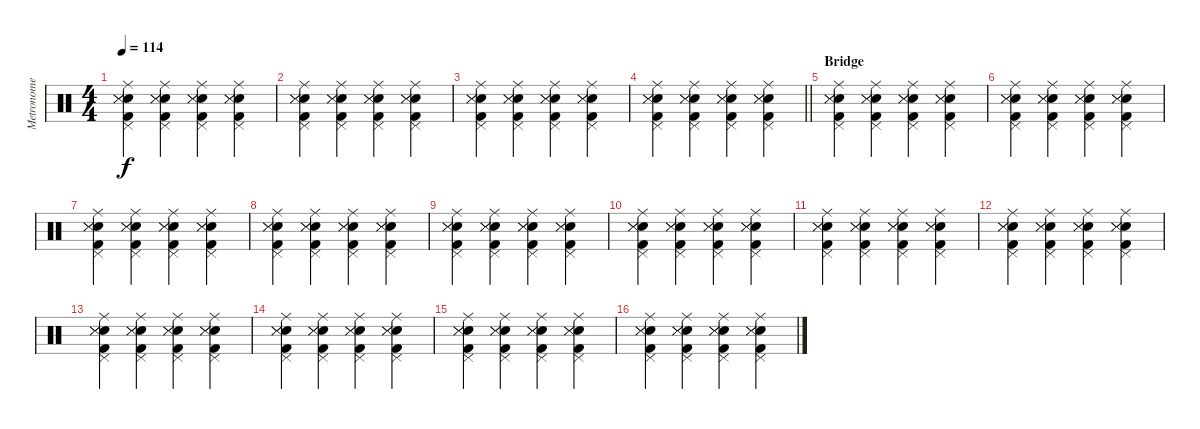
\track ("Metronome" "Metronome") {mute instrument percussion}
\staff {score}
\articulation defaults
\ts (4 4)
\tempo 114
\clef neutral
\ks c
("Ride (middle)" "Pedal Hi-Hat (hit)" "Electric Snare (hit)" "Snare (side stick) 3" "Metronome (hit)" "Kick (hit) 2").4{dy f} ("Ride (middle)" "Pedal Hi-Hat (hit)" "Electric Snare (hit)" "Snare (side stick) 3" "Metronome (hit)" "Kick (hit) 2").4 ("Ride (middle)" "Pedal Hi-Hat (hit)" "Electric Snare (hit)" "Snare (side stick) 3" "Metronome (hit)" "Kick (hit) 2").4 ("Ride (middle)" "Pedal Hi-Hat (hit)" "Electric Snare (hit)" "Snare (side stick) 3" "Metronome (hit)" "Kick (hit) 2").4 |
("Ride (middle)" "Pedal Hi-Hat (hit)" "Electric Snare (hit)" "Snare (side stick) 3" "Metronome (hit)" "Kick (hit) 2").4 ("Ride (middle)" "Pedal Hi-Hat (hit)" "Electric Snare (hit)" "Snare (side stick) 3" "Metronome (hit)" "Kick (hit) 2").4 ("Ride (middle)" "Pedal Hi-Hat (hit)" "Electric Snare (hit)" "Snare (side stick) 3" "Metronome (hit)" "Kick (hit) 2").4 ("Ride (middle)" "Pedal Hi-Hat (hit)" "Electric Snare (hit)" "Snare (side stick) 3" "Metronome (hit)" "Kick (hit) 2").4 |
("Ride (middle)" "Pedal Hi-Hat (hit)" "Electric Snare (hit)" "Snare (side stick) 3" "Metronome (hit)" "Kick (hit) 2").4 ("Ride (middle)" "Pedal Hi-Hat (hit)" "Electric Snare (hit)" "Snare (side stick) 3" "Metronome (hit)" "Kick (hit) 2").4 ("Ride (middle)" "Pedal Hi-Hat (hit)" "Electric Snare (hit)" "Snare (side stick) 3" "Metronome (hit)" "Kick (hit) 2").4 ("Ride (middle)" "Pedal Hi-Hat (hit)" "Electric Snare (hit)" "Snare (side stick) 3" "Metronome (hit)" "Kick (hit) 2").4 |
\barLineRight lightlight
("Ride (middle)" "Pedal Hi-Hat (hit)" "Electric Snare (hit)" "Snare (side stick) 3" "Metronome (hit)" "Kick (hit) 2").4 ("Ride (middle)" "Pedal Hi-Hat (hit)" "Electric Snare (hit)" "Snare (side stick) 3" "Metronome (hit)" "Kick (hit) 2").4 ("Ride (middle)" "Pedal Hi-Hat (hit)" "Electric Snare (hit)" "Snare (side stick) 3" "Metronome (hit)" "Kick (hit) 2").4 ("Ride (middle)" "Pedal Hi-Hat (hit)" "Electric Snare (hit)" "Snare (side stick) 3" "Metronome (hit)" "Kick (hit) 2").4 |
\section ("" "Bridge")
("Ride (middle)" "Pedal Hi-Hat (hit)" "Electric Snare (hit)" "Snare (side stick) 3" "Metronome (hit)" "Kick (hit) 2").4 ("Ride (middle)" "Pedal Hi-Hat (hit)" "Electric Snare (hit)" "Snare (side stick) 3" "Metronome (hit)" "Kick (hit) 2").4 ("Ride (middle)" "Pedal Hi-Hat (hit)" "Electric Snare (hit)" "Snare (side stick) 3" "Metronome (hit)" "Kick (hit) 2").4 ("Ride (middle)" "Pedal Hi-Hat (hit)" "Electric Snare (hit)" "Snare (side stick) 3" "Metronome (hit)" "Kick (hit) 2").4 |
("Ride (middle)" "Pedal Hi-Hat (hit)" "Electric Snare (hit)" "Snare (side stick) 3" "Metronome (hit)" "Kick (hit) 2").4 ("Ride (middle)" "Pedal Hi-Hat (hit)" "Electric Snare (hit)" "Snare (side stick) 3" "Metronome (hit)" "Kick (hit) 2").4 ("Ride (middle)" "Pedal Hi-Hat (hit)" "Electric Snare (hit)" "Snare (side stick) 3" "Metronome (hit)" "Kick (hit) 2").4 ("Ride (middle)" "Pedal Hi-Hat (hit)" "Electric Snare (hit)" "Snare (side stick) 3" "Metronome (hit)" "Kick (hit) 2").4 |
("Ride (middle)" "Pedal Hi-Hat (hit)" "Electric Snare (hit)" "Snare (side stick) 3" "Metronome (hit)" "Kick (hit) 2").4 ("Ride (middle)" "Pedal Hi-Hat (hit)" "Electric Snare (hit)" "Snare (side stick) 3" "Metronome (hit)" "Kick (hit) 2").4 ("Ride (middle)" "Pedal Hi-Hat (hit)" "Electric Snare (hit)" "Snare (side stick) 3" "Metronome (hit)" "Kick (hit) 2").4 ("Ride (middle)" "Pedal Hi-Hat (hit)" "Electric Snare (hit)" "Snare (side stick) 3" "Metronome (hit)" "Kick (hit) 2").4 |
("Ride (middle)" "Pedal Hi-Hat (hit)" "Electric Snare (hit)" "Snare (side stick) 3" "Metronome (hit)" "Kick (hit) 2").4 ("Ride (middle)" "Pedal Hi-Hat (hit)" "Electric Snare (hit)" "Snare (side stick) 3" "Metronome (hit)" "Kick (hit) 2").4 ("Ride (middle)" "Pedal Hi-Hat (hit)" "Electric Snare (hit)" "Snare (side stick) 3" "Metronome (hit)" "Kick (hit) 2").4 ("Ride (middle)" "Pedal Hi-Hat (hit)" "Electric Snare (hit)" "Snare (side stick) 3" "Metronome (hit)" "Kick (hit) 2").4 |
("Ride (middle)" "Pedal Hi-Hat (hit)" "Electric Snare (hit)" "Snare (side stick) 3" "Metronome (hit)" "Kick (hit) 2").4 ("Ride (middle)" "Pedal Hi-Hat (hit)" "Electric Snare (hit)" "Snare (side stick) 3" "Metronome (hit)" "Kick (hit) 2").4 ("Ride (middle)" "Pedal Hi-Hat (hit)" "Electric Snare (hit)" "Snare (side stick) 3" "Metronome (hit)" "Kick (hit) 2").4 ("Ride (middle)" "Pedal Hi-Hat (hit)" "Electric Snare (hit)" "Snare (side stick) 3" "Metronome (hit)" "Kick (hit) 2").4 |
("Ride (middle)" "Pedal Hi-Hat (hit)" "Electric Snare (hit)" "Snare (side stick) 3" "Metronome (hit)" "Kick (hit) 2").4 ("Ride (middle)" "Pedal Hi-Hat (hit)" "Electric Snare (hit)" "Snare (side stick) 3" "Metronome (hit)" "Kick (hit) 2").4 ("Ride (middle)" "Pedal Hi-Hat (hit)" "Electric Snare (hit)" "Snare (side stick) 3" "Metronome (hit)" "Kick (hit) 2").4 ("Ride (middle)" "Pedal Hi-Hat (hit)" "Electric Snare (hit)" "Snare (side stick) 3" "Metronome (hit)" "Kick (hit) 2").4 |
("Ride (middle)" "Pedal Hi-Hat (hit)" "Electric Snare (hit)" "Snare (side stick) 3" "Metronome (hit)" "Kick (hit) 2").4 ("Ride (middle)" "Pedal Hi-Hat (hit)" "Electric Snare (hit)" "Snare (side stick) 3" "Metronome (hit)" "Kick (hit) 2").4 ("Ride (middle)" "Pedal Hi-Hat (hit)" "Electric Snare (hit)" "Snare (side stick) 3" "Metronome (hit)" "Kick (hit) 2").4 ("Ride (middle)" "Pedal Hi-Hat (hit)" "Electric Snare (hit)" "Snare (side stick) 3" "Metronome (hit)" "Kick (hit) 2").4 |
("Ride (middle)" "Pedal Hi-Hat (hit)" "Electric Snare (hit)" "Snare (side stick) 3" "Metronome (hit)" "Kick (hit) 2").4 ("Ride (middle)" "Pedal Hi-Hat (hit)" "Electric Snare (hit)" "Snare (side stick) 3" "Metronome (hit)" "Kick (hit) 2").4 ("Ride (middle)" "Pedal Hi-Hat (hit)" "Electric Snare (hit)" "Snare (side stick) 3" "Metronome (hit)" "Kick (hit) 2").4 ("Ride (middle)" "Pedal Hi-Hat (hit)" "Electric Snare (hit)" "Snare (side stick) 3" "Metronome (hit)" "Kick (hit) 2").4 |
("Ride (middle)" "Pedal Hi-Hat (hit)" "Electric Snare (hit)" "Snare (side stick) 3" "Metronome (hit)" "Kick (hit) 2").4 ("Ride (middle)" "Pedal Hi-Hat (hit)" "Electric Snare (hit)" "Snare (side stick) 3" "Metronome (hit)" "Kick (hit) 2").4 ("Ride (middle)" "Pedal Hi-Hat (hit)" "Electric Snare (hit)" "Snare (side stick) 3" "Metronome (hit)" "Kick (hit) 2").4 ("Ride (middle)" "Pedal Hi-Hat (hit)" "Electric Snare (hit)" "Snare (side stick) 3" "Metronome (hit)" "Kick (hit) 2").4 |
("Ride (middle)" "Pedal Hi-Hat (hit)" "Electric Snare (hit)" "Snare (side stick) 3" "Metronome (hit)" "Kick (hit) 2").4 ("Ride (middle)" "Pedal Hi-Hat (hit)" "Electric Snare (hit)" "Snare (side stick) 3" "Metronome (hit)" "Kick (hit) 2").4 ("Ride (middle)" "Pedal Hi-Hat (hit)" "Electric Snare (hit)" "Snare (side stick) 3" "Metronome (hit)" "Kick (hit) 2").4 ("Ride (middle)" "Pedal Hi-Hat (hit)" "Electric Snare (hit)" "Snare (side stick) 3" "Metronome (hit)" "Kick (hit) 2").4 |
("Ride (middle)" "Pedal Hi-Hat (hit)" "Electric Snare (hit)" "Snare (side stick) 3" "Metronome (hit)" "Kick (hit) 2").4 ("Ride (middle)" "Pedal Hi-Hat (hit)" "Electric Snare (hit)" "Snare (side stick) 3" "Metronome (hit)" "Kick (hit) 2").4 ("Ride (middle)" "Pedal Hi-Hat (hit)" "Electric Snare (hit)" "Snare (side stick) 3" "Metronome (hit)" "Kick (hit) 2").4 ("Ride (middle)" "Pedal Hi-Hat (hit)" "Electric Snare (hit)" "Snare (side stick) 3" "Metronome (hit)" "Kick (hit) 2").4 |
("Ride (middle)" "Pedal Hi-Hat (hit)" "Electric Snare (hit)" "Snare (side stick) 3" "Metronome (hit)" "Kick (hit) 2").4 ("Ride (middle)" "Pedal Hi-Hat (hit)" "Electric Snare (hit)" "Snare (side stick) 3" "Metronome (hit)" "Kick (hit) 2").4 ("Ride (middle)" "Pedal Hi-Hat (hit)" "Electric Snare (hit)" "Snare (side stick) 3" "Metronome (hit)" "Kick (hit) 2").4 ("Ride (middle)" "Pedal Hi-Hat (hit)" "Electric Snare (hit)" "Snare (side stick) 3" "Metronome (hit)" "Kick (hit) 2").4
